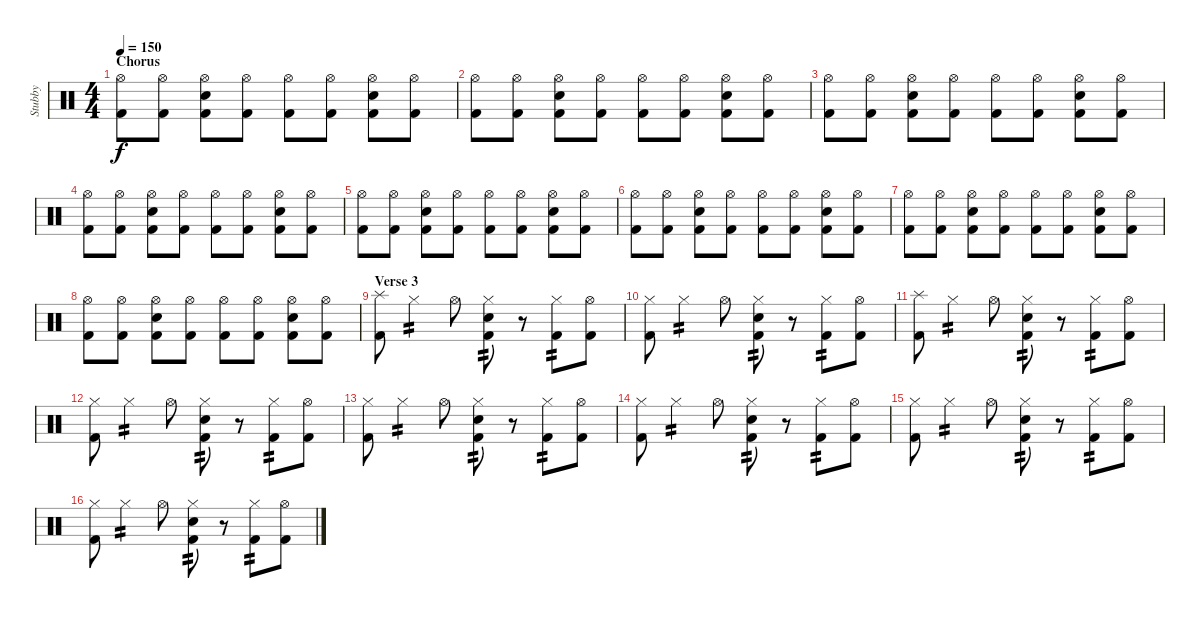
\track ("Stubby" "Stubby") {instrument percussion}
\staff {score}
\articulation defaults
\ts (4 4)
\section ("" "Chorus")
\tempo 150
\clef neutral
\ks c
("Hi-Hat (open)" "Kick (hit) 2").8{dy f} ("Hi-Hat (open)" "Kick (hit) 2").8 ("Hi-Hat (open)" "Snare (hit) 2" "Kick (hit) 2").8 ("Hi-Hat (open)" "Kick (hit) 2").8 ("Hi-Hat (open)" "Kick (hit) 2").8 ("Hi-Hat (open)" "Kick (hit) 2").8 ("Hi-Hat (open)" "Snare (hit) 2" "Kick (hit) 2").8 ("Hi-Hat (open)" "Kick (hit) 2").8 |
("Hi-Hat (open)" "Kick (hit) 2").8 ("Hi-Hat (open)" "Kick (hit) 2").8 ("Hi-Hat (open)" "Snare (hit) 2" "Kick (hit) 2").8 ("Hi-Hat (open)" "Kick (hit) 2").8 ("Hi-Hat (open)" "Kick (hit) 2").8 ("Hi-Hat (open)" "Kick (hit) 2").8 ("Hi-Hat (open)" "Snare (hit) 2" "Kick (hit) 2").8 ("Hi-Hat (open)" "Kick (hit) 2").8 |
("Hi-Hat (open)" "Kick (hit) 2").8 ("Hi-Hat (open)" "Kick (hit) 2").8 ("Hi-Hat (open)" "Snare (hit) 2" "Kick (hit) 2").8 ("Hi-Hat (open)" "Kick (hit) 2").8 ("Hi-Hat (open)" "Kick (hit) 2").8 ("Hi-Hat (open)" "Kick (hit) 2").8 ("Hi-Hat (open)" "Snare (hit) 2" "Kick (hit) 2").8 ("Hi-Hat (open)" "Kick (hit) 2").8 |
("Hi-Hat (open)" "Kick (hit) 2").8 ("Hi-Hat (open)" "Kick (hit) 2").8 ("Hi-Hat (open)" "Snare (hit) 2" "Kick (hit) 2").8 ("Hi-Hat (open)" "Kick (hit) 2").8 ("Hi-Hat (open)" "Kick (hit) 2").8 ("Hi-Hat (open)" "Kick (hit) 2").8 ("Hi-Hat (open)" "Snare (hit) 2" "Kick (hit) 2").8 ("Hi-Hat (open)" "Kick (hit) 2").8 |
("Hi-Hat (open)" "Kick (hit) 2").8 ("Hi-Hat (open)" "Kick (hit) 2").8 ("Hi-Hat (open)" "Snare (hit) 2" "Kick (hit) 2").8 ("Hi-Hat (open)" "Kick (hit) 2").8 ("Hi-Hat (open)" "Kick (hit) 2").8 ("Hi-Hat (open)" "Kick (hit) 2").8 ("Hi-Hat (open)" "Snare (hit) 2" "Kick (hit) 2").8 ("Hi-Hat (open)" "Kick (hit) 2").8 |
("Hi-Hat (open)" "Kick (hit) 2").8 ("Hi-Hat (open)" "Kick (hit) 2").8 ("Hi-Hat (open)" "Snare (hit) 2" "Kick (hit) 2").8 ("Hi-Hat (open)" "Kick (hit) 2").8 ("Hi-Hat (open)" "Kick (hit) 2").8 ("Hi-Hat (open)" "Kick (hit) 2").8 ("Hi-Hat (open)" "Snare (hit) 2" "Kick (hit) 2").8 ("Hi-Hat (open)" "Kick (hit) 2").8 |
("Hi-Hat (open)" "Kick (hit) 2").8 ("Hi-Hat (open)" "Kick (hit) 2").8 ("Hi-Hat (open)" "Snare (hit) 2" "Kick (hit) 2").8 ("Hi-Hat (open)" "Kick (hit) 2").8 ("Hi-Hat (open)" "Kick (hit) 2").8 ("Hi-Hat (open)" "Kick (hit) 2").8 ("Hi-Hat (open)" "Snare (hit) 2" "Kick (hit) 2").8 ("Hi-Hat (open)" "Kick (hit) 2").8 |
("Hi-Hat (open)" "Kick (hit) 2").8 ("Hi-Hat (open)" "Kick (hit) 2").8 ("Hi-Hat (open)" "Snare (hit) 2" "Kick (hit) 2").8 ("Hi-Hat (open)" "Kick (hit) 2").8 ("Hi-Hat (open)" "Kick (hit) 2").8 ("Hi-Hat (open)" "Kick (hit) 2").8 ("Hi-Hat (open)" "Snare (hit) 2" "Kick (hit) 2").8 ("Hi-Hat (open)" "Kick (hit) 2").8 |
\section ("" "Verse 3")
("Splash (hit)" "Kick (hit) 2").8 "Hi-Hat (closed)".4{tp 2} "Hi-Hat (open)".8 ("Hi-Hat (closed)" "Snare (hit) 2" "Kick (hit) 2").8{tp 2} r.8 ("Hi-Hat (closed)" "Kick (hit) 2").8{tp 2} ("Hi-Hat (open)" "Kick (hit) 2").8 |
("Hi-Hat (closed)" "Kick (hit) 2").8 "Hi-Hat (closed)".4{tp 2} "Hi-Hat (open)".8 ("Hi-Hat (closed)" "Snare (hit) 2" "Kick (hit) 2").8{tp 2} r.8 ("Hi-Hat (closed)" "Kick (hit) 2").8{tp 2} ("Hi-Hat (open)" "Kick (hit) 2").8 |
("Splash (hit)" "Kick (hit) 2").8 "Hi-Hat (closed)".4{tp 2} "Hi-Hat (open)".8 ("Hi-Hat (closed)" "Snare (hit) 2" "Kick (hit) 2").8{tp 2} r.8 ("Hi-Hat (closed)" "Kick (hit) 2").8{tp 2} ("Hi-Hat (open)" "Kick (hit) 2").8 |
("Hi-Hat (closed)" "Kick (hit) 2").8 "Hi-Hat (closed)".4{tp 2} "Hi-Hat (open)".8 ("Hi-Hat (closed)" "Snare (hit) 2" "Kick (hit) 2").8{tp 2} r.8 ("Hi-Hat (closed)" "Kick (hit) 2").8{tp 2} ("Hi-Hat (open)" "Kick (hit) 2").8 |
("Hi-Hat (closed)" "Kick (hit) 2").8 "Hi-Hat (closed)".4{tp 2} "Hi-Hat (open)".8 ("Hi-Hat (closed)" "Snare (hit) 2" "Kick (hit) 2").8{tp 2} r.8 ("Hi-Hat (closed)" "Kick (hit) 2").8{tp 2} ("Hi-Hat (open)" "Kick (hit) 2").8 |
("Hi-Hat (closed)" "Kick (hit) 2").8 "Hi-Hat (closed)".4{tp 2} "Hi-Hat (open)".8 ("Hi-Hat (closed)" "Snare (hit) 2" "Kick (hit) 2").8{tp 2} r.8 ("Hi-Hat (closed)" "Kick (hit) 2").8{tp 2} ("Hi-Hat (open)" "Kick (hit) 2").8 |
("Hi-Hat (closed)" "Kick (hit) 2").8 "Hi-Hat (closed)".4{tp 2} "Hi-Hat (open)".8 ("Hi-Hat (closed)" "Snare (hit) 2" "Kick (hit) 2").8{tp 2} r.8 ("Hi-Hat (closed)" "Kick (hit) 2").8{tp 2} ("Hi-Hat (open)" "Kick (hit) 2").8 |
("Hi-Hat (closed)" "Kick (hit) 2").8 "Hi-Hat (closed)".4{tp 2} "Hi-Hat (open)".8 ("Hi-Hat (closed)" "Snare (hit) 2" "Kick (hit) 2").8{tp 2} r.8 ("Hi-Hat (closed)" "Kick (hit) 2").8{tp 2} ("Hi-Hat (open)" "Kick (hit) 2").8
